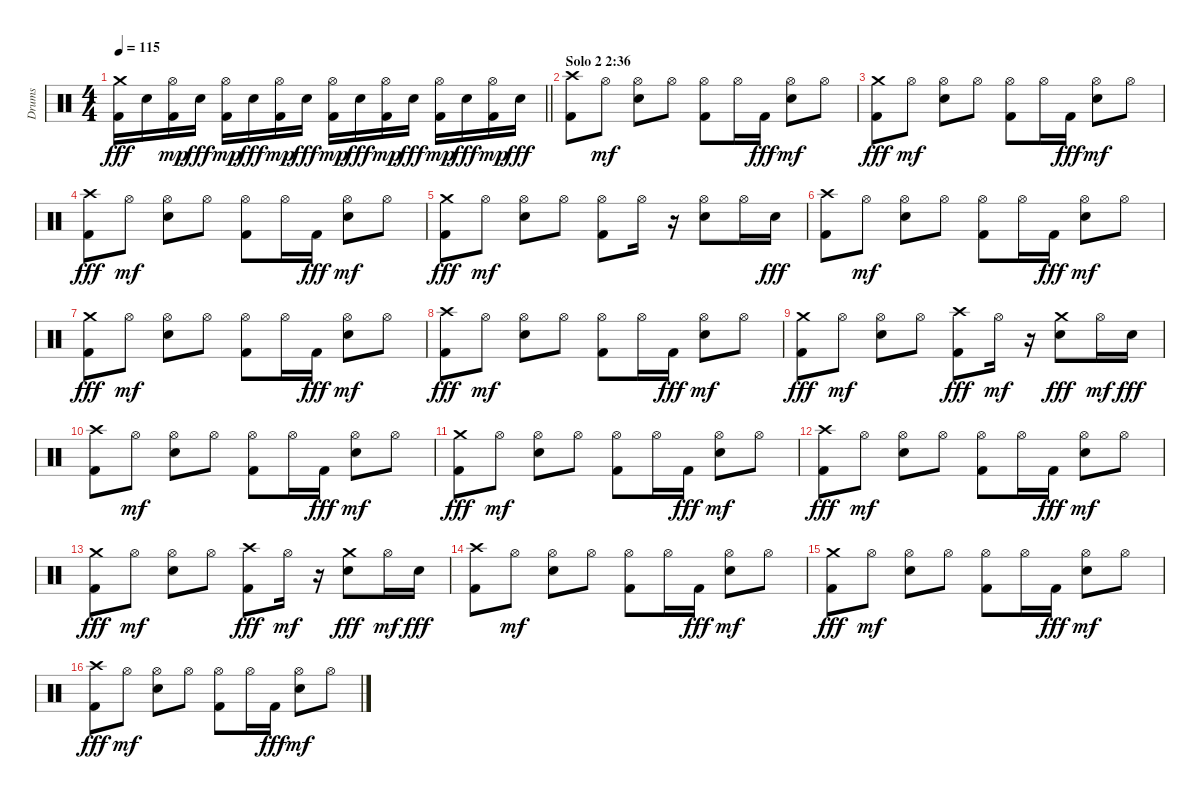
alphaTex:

\track ("Drums" "Drums") {instrument percussion}
\staff {score}
\articulation defaults
\ts (4 4)
\tempo 115
\clef neutral
\barLineRight lightlight
\ks c
("Kick (hit) 2" "Crash medium (hit)").16{dy fff} "Electric Snare (hit)".16 ("Kick (hit) 2" "Hi-Hat (open)").16{dy mp} "Electric Snare (hit)".16{dy fff} ("Kick (hit) 2" "Hi-Hat (open)").16{dy mp} "Electric Snare (hit)".16{dy fff} ("Kick (hit) 2" "Hi-Hat (open)").16{dy mp} "Electric Snare (hit)".16{dy fff} ("Kick (hit) 2" "Hi-Hat (open)").16{dy mp} "Electric Snare (hit)".16{dy fff} ("Kick (hit) 2" "Hi-Hat (open)").16{dy mp} "Electric Snare (hit)".16{dy fff} ("Kick (hit) 2" "Hi-Hat (open)").16{dy mp} "Electric Snare (hit)".16{dy fff} ("Kick (hit) 2" "Hi-Hat (open)").16{dy mp} "Electric Snare (hit)".16{dy fff} |
\section ("" "Solo 2 2:36")
("Kick (hit) 2" "Crash high (hit)").8 "Hi-Hat (open)".8{dy mf} ("Electric Snare (hit)" "Hi-Hat (open)").8 "Hi-Hat (open)".8 ("Kick (hit) 2" "Hi-Hat (open)").8 "Hi-Hat (open)".16 "Kick (hit) 2".16{dy fff} ("Electric Snare (hit)" "Hi-Hat (open)").8{dy mf} "Hi-Hat (open)".8 |
("Kick (hit) 2" "Crash medium (hit)").8{dy fff} "Hi-Hat (open)".8{dy mf} ("Electric Snare (hit)" "Hi-Hat (open)").8 "Hi-Hat (open)".8 ("Kick (hit) 2" "Hi-Hat (open)").8 "Hi-Hat (open)".16 "Kick (hit) 2".16{dy fff} ("Electric Snare (hit)" "Hi-Hat (open)").8{dy mf} "Hi-Hat (open)".8 |
("Kick (hit) 2" "Crash high (hit)").8{dy fff} "Hi-Hat (open)".8{dy mf} ("Electric Snare (hit)" "Hi-Hat (open)").8 "Hi-Hat (open)".8 ("Kick (hit) 2" "Hi-Hat (open)").8 "Hi-Hat (open)".16 "Kick (hit) 2".16{dy fff} ("Electric Snare (hit)" "Hi-Hat (open)").8{dy mf} "Hi-Hat (open)".8 |
("Kick (hit) 2" "Crash medium (hit)").8{dy fff} "Hi-Hat (open)".8{dy mf} ("Electric Snare (hit)" "Hi-Hat (open)").8 "Hi-Hat (open)".8 ("Kick (hit) 2" "Hi-Hat (open)").8 "Hi-Hat (open)".16 r.16 ("Electric Snare (hit)" "Hi-Hat (open)").8 "Hi-Hat (open)".16 "Electric Snare (hit)".16{dy fff} |
("Kick (hit) 2" "Crash high (hit)").8 "Hi-Hat (open)".8{dy mf} ("Electric Snare (hit)" "Hi-Hat (open)").8 "Hi-Hat (open)".8 ("Kick (hit) 2" "Hi-Hat (open)").8 "Hi-Hat (open)".16 "Kick (hit) 2".16{dy fff} ("Electric Snare (hit)" "Hi-Hat (open)").8{dy mf} "Hi-Hat (open)".8 |
("Kick (hit) 2" "Crash medium (hit)").8{dy fff} "Hi-Hat (open)".8{dy mf} ("Electric Snare (hit)" "Hi-Hat (open)").8 "Hi-Hat (open)".8 ("Kick (hit) 2" "Hi-Hat (open)").8 "Hi-Hat (open)".16 "Kick (hit) 2".16{dy fff} ("Electric Snare (hit)" "Hi-Hat (open)").8{dy mf} "Hi-Hat (open)".8 |
("Kick (hit) 2" "Crash high (hit)").8{dy fff} "Hi-Hat (open)".8{dy mf} ("Electric Snare (hit)" "Hi-Hat (open)").8 "Hi-Hat (open)".8 ("Kick (hit) 2" "Hi-Hat (open)").8 "Hi-Hat (open)".16 "Kick (hit) 2".16{dy fff} ("Electric Snare (hit)" "Hi-Hat (open)").8{dy mf} "Hi-Hat (open)".8 |
("Kick (hit) 2" "Crash medium (hit)").8{dy fff} "Hi-Hat (open)".8{dy mf} ("Electric Snare (hit)" "Hi-Hat (open)").8 "Hi-Hat (open)".8 ("Kick (hit) 2" "Crash high (hit)").8{dy fff} "Hi-Hat (open)".16{dy mf} r.16 ("Electric Snare (hit)" "Crash medium (hit)").8{dy fff} "Hi-Hat (open)".16{dy mf} "Electric Snare (hit)".16{dy fff} |
("Kick (hit) 2" "Crash high (hit)").8 "Hi-Hat (open)".8{dy mf} ("Electric Snare (hit)" "Hi-Hat (open)").8 "Hi-Hat (open)".8 ("Kick (hit) 2" "Hi-Hat (open)").8 "Hi-Hat (open)".16 "Kick (hit) 2".16{dy fff} ("Electric Snare (hit)" "Hi-Hat (open)").8{dy mf} "Hi-Hat (open)".8 |
("Kick (hit) 2" "Crash medium (hit)").8{dy fff} "Hi-Hat (open)".8{dy mf} ("Electric Snare (hit)" "Hi-Hat (open)").8 "Hi-Hat (open)".8 ("Kick (hit) 2" "Hi-Hat (open)").8 "Hi-Hat (open)".16 "Kick (hit) 2".16{dy fff} ("Electric Snare (hit)" "Hi-Hat (open)").8{dy mf} "Hi-Hat (open)".8 |
("Kick (hit) 2" "Crash high (hit)").8{dy fff} "Hi-Hat (open)".8{dy mf} ("Electric Snare (hit)" "Hi-Hat (open)").8 "Hi-Hat (open)".8 ("Kick (hit) 2" "Hi-Hat (open)").8 "Hi-Hat (open)".16 "Kick (hit) 2".16{dy fff} ("Electric Snare (hit)" "Hi-Hat (open)").8{dy mf} "Hi-Hat (open)".8 |
("Kick (hit) 2" "Crash medium (hit)").8{dy fff} "Hi-Hat (open)".8{dy mf} ("Electric Snare (hit)" "Hi-Hat (open)").8 "Hi-Hat (open)".8 ("Kick (hit) 2" "Crash high (hit)").8{dy fff} "Hi-Hat (open)".16{dy mf} r.16 ("Electric Snare (hit)" "Crash medium (hit)").8{dy fff} "Hi-Hat (open)".16{dy mf} "Electric Snare (hit)".16{dy fff} |
("Kick (hit) 2" "Crash high (hit)").8 "Hi-Hat (open)".8{dy mf} ("Electric Snare (hit)" "Hi-Hat (open)").8 "Hi-Hat (open)".8 ("Kick (hit) 2" "Hi-Hat (open)").8 "Hi-Hat (open)".16 "Kick (hit) 2".16{dy fff} ("Electric Snare (hit)" "Hi-Hat (open)").8{dy mf} "Hi-Hat (open)".8 |
("Kick (hit) 2" "Crash medium (hit)").8{dy fff} "Hi-Hat (open)".8{dy mf} ("Electric Snare (hit)" "Hi-Hat (open)").8 "Hi-Hat (open)".8 ("Kick (hit) 2" "Hi-Hat (open)").8 "Hi-Hat (open)".16 "Kick (hit) 2".16{dy fff} ("Electric Snare (hit)" "Hi-Hat (open)").8{dy mf} "Hi-Hat (open)".8 |
("Kick (hit) 2" "Crash high (hit)").8{dy fff} "Hi-Hat (open)".8{dy mf} ("Electric Snare (hit)" "Hi-Hat (open)").8 "Hi-Hat (open)".8 ("Kick (hit) 2" "Hi-Hat (open)").8 "Hi-Hat (open)".16 "Kick (hit) 2".16{dy fff} ("Electric Snare (hit)" "Hi-Hat (open)").8{dy mf} "Hi-Hat (open)".8
